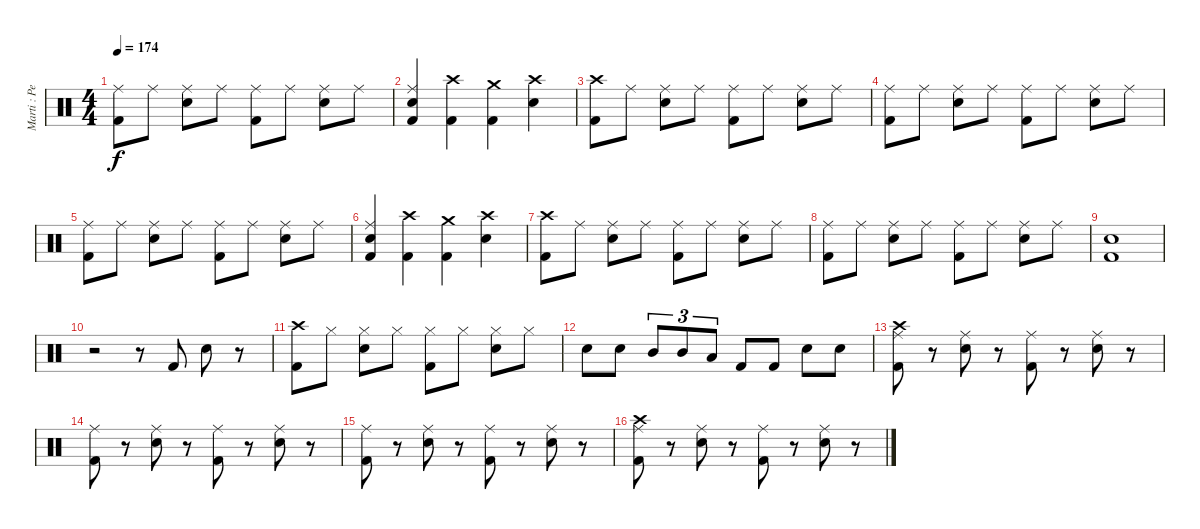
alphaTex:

\track ("Marti : Percussion" "Marti : Pe") {instrument percussion}
\staff {score}
\articulation defaults
\ts (4 4)
\tempo 174
\clef neutral
\ks c
("Kick (hit) 2" "Ride (middle)").8{dy f} "Ride (middle)".8 ("Electric Snare (hit)" "Ride (middle)").8 "Ride (middle)".8 ("Kick (hit) 2" "Ride (middle)").8 "Ride (middle)".8 ("Electric Snare (hit)" "Ride (middle)").8 "Ride (middle)".8 |
("Kick (hit) 2" "Electric Snare (hit)" "Ride (middle)").4 ("Kick (hit) 2" "Crash high (hit)").4 ("Kick (hit) 2" "Crash medium (hit)").4 ("Electric Snare (hit)" "Crash high (hit)").4 |
("Kick (hit) 2" "Crash high (hit)").8 "Ride (middle)".8 ("Electric Snare (hit)" "Ride (middle)").8 "Ride (middle)".8 ("Kick (hit) 2" "Ride (middle)").8 "Ride (middle)".8 ("Electric Snare (hit)" "Ride (middle)").8 "Ride (middle)".8 |
("Kick (hit) 2" "Ride (middle)").8 "Ride (middle)".8 ("Electric Snare (hit)" "Ride (middle)").8 "Ride (middle)".8 ("Kick (hit) 2" "Ride (middle)").8 "Ride (middle)".8 ("Electric Snare (hit)" "Ride (middle)").8 "Ride (middle)".8 |
("Kick (hit) 2" "Ride (middle)").8 "Ride (middle)".8 ("Electric Snare (hit)" "Ride (middle)").8 "Ride (middle)".8 ("Kick (hit) 2" "Ride (middle)").8 "Ride (middle)".8 ("Electric Snare (hit)" "Ride (middle)").8 "Ride (middle)".8 |
("Kick (hit) 2" "Electric Snare (hit)" "Ride (middle)").4 ("Kick (hit) 2" "Crash high (hit)").4 ("Kick (hit) 2" "Crash medium (hit)").4 ("Electric Snare (hit)" "Crash high (hit)").4 |
("Kick (hit) 2" "Crash high (hit)").8 "Ride (middle)".8 ("Electric Snare (hit)" "Ride (middle)").8 "Ride (middle)".8 ("Kick (hit) 2" "Ride (middle)").8 "Ride (middle)".8 ("Electric Snare (hit)" "Ride (middle)").8 "Ride (middle)".8 |
("Kick (hit) 2" "Ride (middle)").8 "Ride (middle)".8 ("Electric Snare (hit)" "Ride (middle)").8 "Ride (middle)".8 ("Kick (hit) 2" "Ride (middle)").8 "Ride (middle)".8 ("Electric Snare (hit)" "Ride (middle)").8 "Ride (middle)".8 |
("Electric Snare (hit)" "Kick (hit) 2").1 |
r.2 r.8 "Kick (hit) 2".8 "Electric Snare (hit)".8 r.8 |
("Kick (hit) 2" "Crash high (hit)").8 "Hi-Hat (closed)".8 ("Electric Snare (hit)" "Hi-Hat (closed)").8 "Hi-Hat (closed)".8 ("Kick (hit) 2" "Hi-Hat (closed)").8 "Hi-Hat (closed)".8 ("Electric Snare (hit)" "Hi-Hat (closed)").8 "Hi-Hat (closed)".8 |
"Electric Snare (hit)".8 "Electric Snare (hit)".8 "Mid Tom (hit)".8{tu (3 2)} "Mid Tom (hit)".8{tu (3 2)} "Low Tom (hit)".8{tu (3 2)} "Kick (hit) 2".8 "Kick (hit) 2".8 "Electric Snare (hit)".8 "Electric Snare (hit)".8 |
("Crash high (hit)" "Kick (hit) 2" "Ride (middle)").8 r.8 ("Electric Snare (hit)" "Ride (middle)").8 r.8 ("Kick (hit) 2" "Ride (middle)").8 r.8 ("Electric Snare (hit)" "Ride (middle)").8 r.8 |
("Kick (hit) 2" "Ride (middle)").8 r.8 ("Electric Snare (hit)" "Ride (middle)").8 r.8 ("Kick (hit) 2" "Ride (middle)").8 r.8 ("Electric Snare (hit)" "Ride (middle)").8 r.8 |
("Kick (hit) 2" "Ride (middle)").8 r.8 ("Electric Snare (hit)" "Ride (middle)").8 r.8 ("Kick (hit) 2" "Ride (middle)").8 r.8 ("Electric Snare (hit)" "Ride (middle)").8 r.8 |
("Crash high (hit)" "Kick (hit) 2" "Ride (middle)").8 r.8 ("Electric Snare (hit)" "Ride (middle)").8 r.8 ("Kick (hit) 2" "Ride (middle)").8 r.8 ("Electric Snare (hit)" "Ride (middle)").8 r.8
